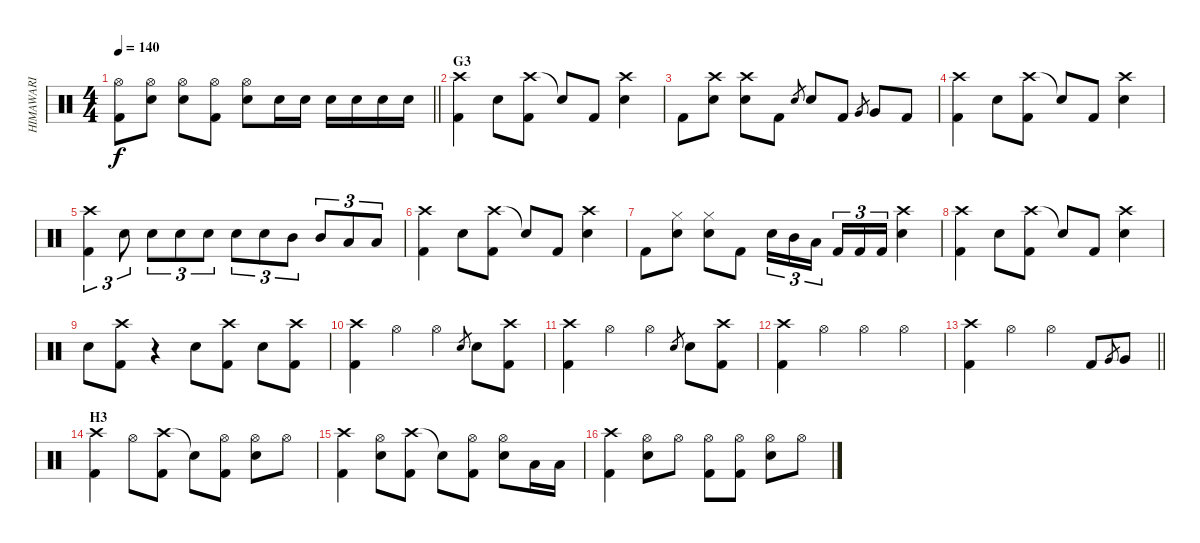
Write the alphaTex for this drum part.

\track ("HIMAWARI" "HIMAWARI") {instrument percussion}
\staff {score}
\articulation defaults
\ts (4 4)
\tempo 140
\clef neutral
\barLineRight lightlight
\ks c
("Hi-Hat (open)" "Kick (hit) 2").8{dy f} ("Hi-Hat (open)" "Snare (hit) 2").8 ("Hi-Hat (open)" "Snare (hit) 2").8 ("Hi-Hat (open)" "Kick (hit) 2").8 ("Hi-Hat (open)" "Snare (hit) 2").8 "Snare (hit) 2".16 "Snare (hit) 2".16 "Snare (hit) 2".16 "Snare (hit) 2".16 "Snare (hit) 2".16 "Snare (hit) 2".16 |
\section ("" "G3")
("Crash high (hit)" "Kick (hit) 2").4 "Snare (hit) 2".8 ("Crash high (hit)" "Kick (hit) 2").8 "Snare (hit)"{t}.8 "Kick (hit) 2".8 ("Crash high (hit)" "Snare (hit) 2").4 |
"Kick (hit) 2".8 ("Crash high (hit)" "Snare (hit) 2").8 ("Crash high (hit)" "Snare (hit) 2").8 "Kick (hit) 2".8 "Snare (hit) 2".8{gr} "Snare (hit) 2".8 "Kick (hit) 2".8 "Very Low Tom (hit)".8{gr} "Very Low Tom (hit)".8 "Kick (hit) 2".8 |
("Crash high (hit)" "Kick (hit) 2").4 "Snare (hit) 2".8 ("Crash high (hit)" "Kick (hit) 2").8 "Snare (hit)"{t}.8 "Kick (hit) 2".8 ("Crash high (hit)" "Snare (hit) 2").4 |
("Crash high (hit)" "Kick (hit) 2").4{tu (3 2)} "Snare (hit) 2".8{tu (3 2)} "Snare (hit) 2".8{tu (3 2)} "Snare (hit) 2".8{tu (3 2)} "Snare (hit) 2".8{tu (3 2)} "Snare (hit) 2".8{tu (3 2)} "Snare (hit) 2".8{tu (3 2)} "Mid Tom (hit)".8{tu (3 2)} "Mid Tom (hit)".8{tu (3 2)} "Low Tom (hit)".8{tu (3 2)} "Low Tom (hit)".8{tu (3 2)} |
("Crash high (hit)" "Kick (hit) 2").4 "Snare (hit) 2".8 ("Crash high (hit)" "Kick (hit) 2").8 "Snare (hit)"{t}.8 "Kick (hit) 2".8 ("Crash high (hit)" "Snare (hit) 2").4 |
"Kick (hit) 2".8 ("Hi-Hat (closed)" "Snare (hit) 2").8 ("Hi-Hat (closed)" "Snare (hit) 2").8 "Kick (hit) 2".8 "Snare (hit) 2".16{tu (3 2)} "Mid Tom (hit)".16{tu (3 2)} "Low Tom (hit)".16{tu (3 2)} "Kick (hit) 2".16{tu (3 2)} "Kick (hit) 2".16{tu (3 2)} "Kick (hit) 2".16{tu (3 2)} ("Crash high (hit)" "Snare (hit) 2").4 |
("Crash high (hit)" "Kick (hit) 2").4 "Snare (hit) 2".8 ("Crash high (hit)" "Kick (hit) 2").8 "Snare (hit)"{t}.8 "Kick (hit) 2".8 ("Crash high (hit)" "Snare (hit) 2").4 |
"Snare (hit) 2".8 ("Crash high (hit)" "Kick (hit) 2").8 r.4 "Snare (hit) 2".8 ("Crash high (hit)" "Kick (hit) 2").8 "Snare (hit) 2".8 ("Crash high (hit)" "Kick (hit) 2").8 |
("Crash high (hit)" "Kick (hit) 2").4 "Hi-Hat (open)".4 "Hi-Hat (open)".4 "Snare (hit) 2".8{gr} "Snare (hit) 2".8 ("Crash high (hit)" "Kick (hit) 2").8 |
("Crash high (hit)" "Kick (hit) 2").4 "Hi-Hat (open)".4 "Hi-Hat (open)".4 "Snare (hit) 2".8{gr} "Snare (hit) 2".8 ("Crash high (hit)" "Kick (hit) 2").8 |
("Crash high (hit)" "Kick (hit) 2").4 "Hi-Hat (open)".4 "Hi-Hat (open)".4 "Hi-Hat (open)".4 |
\barLineRight lightlight
("Crash high (hit)" "Kick (hit) 2").4 "Hi-Hat (open)".4 "Hi-Hat (open)".4 "Kick (hit) 2".8 "Very Low Tom (hit)".8{gr} "Very Low Tom (hit)".8 |
\section ("" "H3")
("Crash high (hit)" "Kick (hit) 2").4 "Hi-Hat (open)".8 ("Crash high (hit)" "Kick (hit) 2").8 "Snare (hit)"{t}.8 ("Hi-Hat (open)" "Kick (hit) 2").8 ("Hi-Hat (open)" "Snare (hit) 2").8 "Hi-Hat (open)".8 |
("Crash high (hit)" "Kick (hit) 2").4 ("Hi-Hat (open)" "Snare (hit) 2").8 ("Crash high (hit)" "Kick (hit) 2").8 "Snare (hit)"{t}.8 ("Hi-Hat (open)" "Kick (hit) 2").8 ("Hi-Hat (open)" "Snare (hit) 2").8 "Low Tom (hit)".16 "Low Tom (hit)".16 |
("Crash high (hit)" "Kick (hit) 2").4 ("Hi-Hat (open)" "Snare (hit) 2").8 "Hi-Hat (open)".8 ("Hi-Hat (open)" "Kick (hit) 2").8 ("Hi-Hat (open)" "Kick (hit) 2").8 ("Hi-Hat (open)" "Snare (hit) 2").8 "Hi-Hat (open)".8
